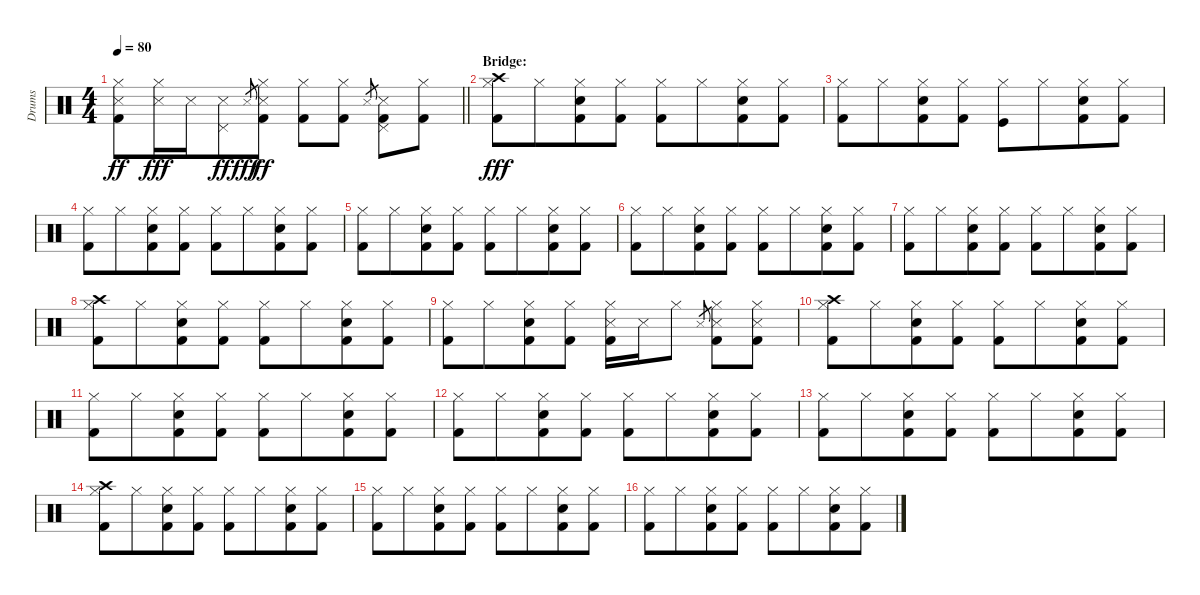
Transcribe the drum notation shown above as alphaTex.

\track ("Drums" "Drums") {instrument percussion}
\staff {score}
\articulation defaults
\ts (4 4)
\tempo 80
\clef neutral
\barLineRight lightlight
\ks c
("Hi-Hat (closed)" "Snare (side stick) 3" "Kick (hit) 2").8{dy ff} ("Hi-Hat (closed)" "Snare (side stick) 3").16{dy fff} "Snare (side stick) 3".16{beam merge} ("Pedal Hi-Hat (hit)" "Snare (side stick) 3").8{dy ff} "Snare (side stick) 3".8{gr dy fff} ("Hi-Hat (closed)" "Snare (side stick) 3" "Kick (hit) 2").8{dy ff} ("Hi-Hat (closed)" "Kick (hit) 2").8 ("Hi-Hat (closed)" "Kick (hit) 2").8 "Snare (side stick) 3".8{gr beam merge} ("Pedal Hi-Hat (hit)" "Snare (side stick) 3" "Kick (hit) 2").8 ("Hi-Hat (closed)" "Kick (hit) 2").8 |
\section ("" "Bridge:")
("Hi-Hat (closed)" "Crash high (hit)" "Kick (hit) 2").8{dy fff} "Hi-Hat (closed)".8{beam merge} ("Hi-Hat (closed)" "Snare (hit) 2" "Kick (hit) 2").8 ("Hi-Hat (closed)" "Kick (hit) 2").8 ("Hi-Hat (closed)" "Kick (hit) 2").8 "Hi-Hat (closed)".8{beam merge} ("Hi-Hat (closed)" "Snare (hit) 2" "Kick (hit) 2").8 ("Hi-Hat (closed)" "Kick (hit) 2").8 |
("Hi-Hat (closed)" "Kick (hit) 2").8 "Hi-Hat (closed)".8{beam merge} ("Hi-Hat (closed)" "Snare (hit) 2" "Kick (hit) 2").8 ("Hi-Hat (closed)" "Kick (hit) 2").8 ("Hi-Hat (closed)" "Kick (hit)").8 "Hi-Hat (closed)".8{beam merge} ("Hi-Hat (closed)" "Snare (hit) 2" "Kick (hit) 2").8 ("Hi-Hat (closed)" "Kick (hit) 2").8 |
("Hi-Hat (closed)" "Kick (hit) 2").8 "Hi-Hat (closed)".8{beam merge} ("Hi-Hat (closed)" "Snare (hit) 2" "Kick (hit) 2").8 ("Hi-Hat (closed)" "Kick (hit) 2").8 ("Hi-Hat (closed)" "Kick (hit) 2").8 "Hi-Hat (closed)".8{beam merge} ("Hi-Hat (closed)" "Snare (hit) 2" "Kick (hit) 2").8 ("Hi-Hat (closed)" "Kick (hit) 2").8 |
("Hi-Hat (closed)" "Kick (hit) 2").8 "Hi-Hat (closed)".8{beam merge} ("Hi-Hat (closed)" "Snare (hit) 2" "Kick (hit) 2").8 ("Hi-Hat (closed)" "Kick (hit) 2").8 ("Hi-Hat (closed)" "Kick (hit) 2").8 "Hi-Hat (closed)".8{beam merge} ("Hi-Hat (closed)" "Snare (hit) 2" "Kick (hit) 2").8 ("Hi-Hat (closed)" "Kick (hit) 2").8 |
("Hi-Hat (closed)" "Kick (hit) 2").8 "Hi-Hat (closed)".8{beam merge} ("Hi-Hat (closed)" "Snare (hit) 2" "Kick (hit) 2").8 ("Hi-Hat (closed)" "Kick (hit) 2").8 ("Hi-Hat (closed)" "Kick (hit) 2").8 "Hi-Hat (closed)".8{beam merge} ("Hi-Hat (closed)" "Snare (hit) 2" "Kick (hit) 2").8 ("Hi-Hat (closed)" "Kick (hit) 2").8 |
("Hi-Hat (closed)" "Kick (hit) 2").8 "Hi-Hat (closed)".8{beam merge} ("Hi-Hat (closed)" "Snare (hit) 2" "Kick (hit) 2").8 ("Hi-Hat (closed)" "Kick (hit) 2").8 ("Hi-Hat (closed)" "Kick (hit) 2").8 "Hi-Hat (closed)".8{beam merge} ("Hi-Hat (closed)" "Snare (hit) 2" "Kick (hit) 2").8 ("Hi-Hat (closed)" "Kick (hit) 2").8 |
("Hi-Hat (closed)" "Crash high (hit)" "Kick (hit) 2").8 "Hi-Hat (closed)".8{beam merge} ("Hi-Hat (closed)" "Snare (hit) 2" "Kick (hit) 2").8 ("Hi-Hat (closed)" "Kick (hit) 2").8 ("Hi-Hat (closed)" "Kick (hit) 2").8 "Hi-Hat (closed)".8{beam merge} ("Hi-Hat (closed)" "Snare (hit) 2" "Kick (hit) 2").8 ("Hi-Hat (closed)" "Kick (hit) 2").8 |
("Hi-Hat (closed)" "Kick (hit) 2").8 "Hi-Hat (closed)".8{beam merge} ("Hi-Hat (closed)" "Snare (hit) 2" "Kick (hit) 2").8 ("Hi-Hat (closed)" "Kick (hit) 2").8 ("Hi-Hat (closed)" "Snare (side stick) 3" "Kick (hit) 2").16 "Snare (side stick) 3".16 "Hi-Hat (closed)".8 "Snare (side stick) 3".8{gr beam merge} ("Hi-Hat (closed)" "Snare (side stick) 3" "Kick (hit) 2").8 ("Hi-Hat (closed)" "Snare (side stick) 3" "Kick (hit) 2").8 |
("Hi-Hat (closed)" "Crash high (hit)" "Kick (hit) 2").8 "Hi-Hat (closed)".8{beam merge} ("Hi-Hat (closed)" "Snare (hit) 2" "Kick (hit) 2").8 ("Hi-Hat (closed)" "Kick (hit) 2").8 ("Hi-Hat (closed)" "Kick (hit) 2").8 "Hi-Hat (closed)".8{beam merge} ("Hi-Hat (closed)" "Snare (hit) 2" "Kick (hit) 2").8 ("Hi-Hat (closed)" "Kick (hit) 2").8 |
("Hi-Hat (closed)" "Kick (hit) 2").8 "Hi-Hat (closed)".8{beam merge} ("Hi-Hat (closed)" "Snare (hit) 2" "Kick (hit) 2").8 ("Hi-Hat (closed)" "Kick (hit) 2").8 ("Hi-Hat (closed)" "Kick (hit) 2").8 "Hi-Hat (closed)".8{beam merge} ("Hi-Hat (closed)" "Snare (hit) 2" "Kick (hit) 2").8 ("Hi-Hat (closed)" "Kick (hit) 2").8 |
("Hi-Hat (closed)" "Kick (hit) 2").8 "Hi-Hat (closed)".8{beam merge} ("Hi-Hat (closed)" "Snare (hit) 2" "Kick (hit) 2").8 ("Hi-Hat (closed)" "Kick (hit) 2").8 ("Hi-Hat (closed)" "Kick (hit) 2").8 "Hi-Hat (closed)".8{beam merge} ("Hi-Hat (closed)" "Snare (hit) 2" "Kick (hit) 2").8 ("Hi-Hat (closed)" "Kick (hit) 2").8 |
("Hi-Hat (closed)" "Kick (hit) 2").8 "Hi-Hat (closed)".8{beam merge} ("Hi-Hat (closed)" "Snare (hit) 2" "Kick (hit) 2").8 ("Hi-Hat (closed)" "Kick (hit) 2").8 ("Hi-Hat (closed)" "Kick (hit) 2").8 "Hi-Hat (closed)".8{beam merge} ("Hi-Hat (closed)" "Snare (hit) 2" "Kick (hit) 2").8 ("Hi-Hat (closed)" "Kick (hit) 2").8 |
("Hi-Hat (closed)" "Crash high (hit)" "Kick (hit) 2").8 "Hi-Hat (closed)".8{beam merge} ("Hi-Hat (closed)" "Snare (hit) 2" "Kick (hit) 2").8 ("Hi-Hat (closed)" "Kick (hit) 2").8 ("Hi-Hat (closed)" "Kick (hit) 2").8 "Hi-Hat (closed)".8{beam merge} ("Hi-Hat (closed)" "Snare (hit) 2" "Kick (hit) 2").8 ("Hi-Hat (closed)" "Kick (hit) 2").8 |
("Hi-Hat (closed)" "Kick (hit) 2").8 "Hi-Hat (closed)".8{beam merge} ("Hi-Hat (closed)" "Snare (hit) 2" "Kick (hit) 2").8 ("Hi-Hat (closed)" "Kick (hit) 2").8 ("Hi-Hat (closed)" "Kick (hit) 2").8 "Hi-Hat (closed)".8{beam merge} ("Hi-Hat (closed)" "Snare (hit) 2" "Kick (hit) 2").8 ("Hi-Hat (closed)" "Kick (hit) 2").8 |
("Hi-Hat (closed)" "Kick (hit) 2").8 "Hi-Hat (closed)".8{beam merge} ("Hi-Hat (closed)" "Snare (hit) 2" "Kick (hit) 2").8 ("Hi-Hat (closed)" "Kick (hit) 2").8 ("Hi-Hat (closed)" "Kick (hit) 2").8 "Hi-Hat (closed)".8{beam merge} ("Hi-Hat (closed)" "Snare (hit) 2" "Kick (hit) 2").8 ("Hi-Hat (closed)" "Kick (hit) 2").8
